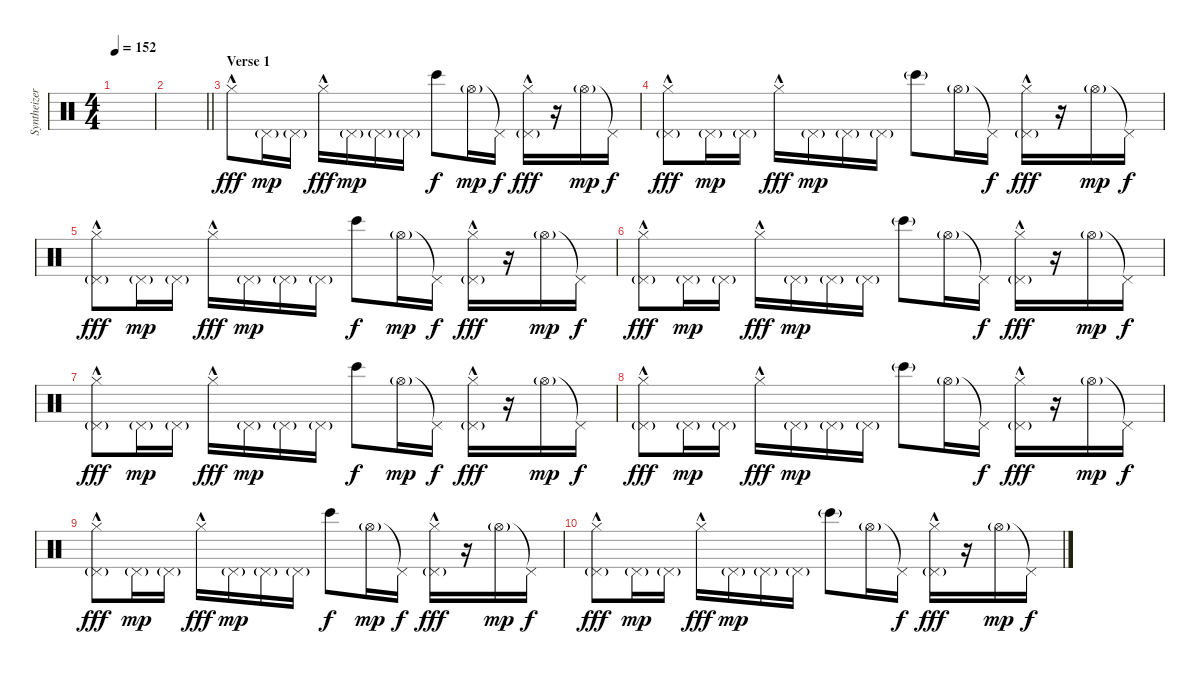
\track ("Syntheizer" "Syntheizer") {instrument percussion}
\staff {score}
\articulation defaults
\ts (4 4)
\tempo 152
\clef neutral
\ks c
|
\barLineRight lightlight
|
\section ("" "Verse 1")
"Hi-Hat (closed)"{hac}.8{dy fff} "Pedal Hi-Hat (hit)"{g}.16{dy mp} "Pedal Hi-Hat (hit)"{g}.16 "Hi-Hat (closed)"{hac}.16{dy fff} "Pedal Hi-Hat (hit)"{g}.16{dy mp} "Pedal Hi-Hat (hit)"{g}.16 "Pedal Hi-Hat (hit)"{g}.16 "Bongo High (hit)".8{dy f} "Hi-Hat (open)"{g}.16{dy mp} "Pedal Hi-Hat (hit)"{t}.16{dy f} ("Pedal Hi-Hat (hit)"{g} "Hi-Hat (closed)"{hac}).16{dy fff} r.16 "Hi-Hat (open)"{g}.16{dy mp} "Pedal Hi-Hat (hit)"{t}.16{dy f} |
("Pedal Hi-Hat (hit)"{g} "Hi-Hat (closed)"{hac}).8{dy fff} "Pedal Hi-Hat (hit)"{g}.16{dy mp} "Pedal Hi-Hat (hit)"{g}.16 "Hi-Hat (closed)"{hac}.16{dy fff} "Pedal Hi-Hat (hit)"{g}.16{dy mp} "Pedal Hi-Hat (hit)"{g}.16 "Pedal Hi-Hat (hit)"{g}.16 "Bongo High (hit)"{g}.8 "Hi-Hat (open)"{g}.16 "Pedal Hi-Hat (hit)"{t}.16{dy f} ("Pedal Hi-Hat (hit)"{g} "Hi-Hat (closed)"{hac}).16{dy fff} r.16 "Hi-Hat (open)"{g}.16{dy mp} "Pedal Hi-Hat (hit)"{t}.16{dy f} |
("Pedal Hi-Hat (hit)"{g} "Hi-Hat (closed)"{hac}).8{dy fff} "Pedal Hi-Hat (hit)"{g}.16{dy mp} "Pedal Hi-Hat (hit)"{g}.16 "Hi-Hat (closed)"{hac}.16{dy fff} "Pedal Hi-Hat (hit)"{g}.16{dy mp} "Pedal Hi-Hat (hit)"{g}.16 "Pedal Hi-Hat (hit)"{g}.16 "Bongo High (hit)".8{dy f} "Hi-Hat (open)"{g}.16{dy mp} "Pedal Hi-Hat (hit)"{t}.16{dy f} ("Pedal Hi-Hat (hit)"{g} "Hi-Hat (closed)"{hac}).16{dy fff} r.16 "Hi-Hat (open)"{g}.16{dy mp} "Pedal Hi-Hat (hit)"{t}.16{dy f} |
("Pedal Hi-Hat (hit)"{g} "Hi-Hat (closed)"{hac}).8{dy fff} "Pedal Hi-Hat (hit)"{g}.16{dy mp} "Pedal Hi-Hat (hit)"{g}.16 "Hi-Hat (closed)"{hac}.16{dy fff} "Pedal Hi-Hat (hit)"{g}.16{dy mp} "Pedal Hi-Hat (hit)"{g}.16 "Pedal Hi-Hat (hit)"{g}.16 "Bongo High (hit)"{g}.8 "Hi-Hat (open)"{g}.16 "Pedal Hi-Hat (hit)"{t}.16{dy f} ("Pedal Hi-Hat (hit)"{g} "Hi-Hat (closed)"{hac}).16{dy fff} r.16 "Hi-Hat (open)"{g}.16{dy mp} "Pedal Hi-Hat (hit)"{t}.16{dy f} |
("Pedal Hi-Hat (hit)"{g} "Hi-Hat (closed)"{hac}).8{dy fff} "Pedal Hi-Hat (hit)"{g}.16{dy mp} "Pedal Hi-Hat (hit)"{g}.16 "Hi-Hat (closed)"{hac}.16{dy fff} "Pedal Hi-Hat (hit)"{g}.16{dy mp} "Pedal Hi-Hat (hit)"{g}.16 "Pedal Hi-Hat (hit)"{g}.16 "Bongo High (hit)".8{dy f} "Hi-Hat (open)"{g}.16{dy mp} "Pedal Hi-Hat (hit)"{t}.16{dy f} ("Pedal Hi-Hat (hit)"{g} "Hi-Hat (closed)"{hac}).16{dy fff} r.16 "Hi-Hat (open)"{g}.16{dy mp} "Pedal Hi-Hat (hit)"{t}.16{dy f} |
("Pedal Hi-Hat (hit)"{g} "Hi-Hat (closed)"{hac}).8{dy fff} "Pedal Hi-Hat (hit)"{g}.16{dy mp} "Pedal Hi-Hat (hit)"{g}.16 "Hi-Hat (closed)"{hac}.16{dy fff} "Pedal Hi-Hat (hit)"{g}.16{dy mp} "Pedal Hi-Hat (hit)"{g}.16 "Pedal Hi-Hat (hit)"{g}.16 "Bongo High (hit)"{g}.8 "Hi-Hat (open)"{g}.16 "Pedal Hi-Hat (hit)"{t}.16{dy f} ("Pedal Hi-Hat (hit)"{g} "Hi-Hat (closed)"{hac}).16{dy fff} r.16 "Hi-Hat (open)"{g}.16{dy mp} "Pedal Hi-Hat (hit)"{t}.16{dy f} |
("Pedal Hi-Hat (hit)"{g} "Hi-Hat (closed)"{hac}).8{dy fff} "Pedal Hi-Hat (hit)"{g}.16{dy mp} "Pedal Hi-Hat (hit)"{g}.16 "Hi-Hat (closed)"{hac}.16{dy fff} "Pedal Hi-Hat (hit)"{g}.16{dy mp} "Pedal Hi-Hat (hit)"{g}.16 "Pedal Hi-Hat (hit)"{g}.16 "Bongo High (hit)".8{dy f} "Hi-Hat (open)"{g}.16{dy mp} "Pedal Hi-Hat (hit)"{t}.16{dy f} ("Pedal Hi-Hat (hit)"{g} "Hi-Hat (closed)"{hac}).16{dy fff} r.16 "Hi-Hat (open)"{g}.16{dy mp} "Pedal Hi-Hat (hit)"{t}.16{dy f} |
("Pedal Hi-Hat (hit)"{g} "Hi-Hat (closed)"{hac}).8{dy fff} "Pedal Hi-Hat (hit)"{g}.16{dy mp} "Pedal Hi-Hat (hit)"{g}.16 "Hi-Hat (closed)"{hac}.16{dy fff} "Pedal Hi-Hat (hit)"{g}.16{dy mp} "Pedal Hi-Hat (hit)"{g}.16 "Pedal Hi-Hat (hit)"{g}.16 "Bongo High (hit)"{g}.8 "Hi-Hat (open)"{g}.16 "Pedal Hi-Hat (hit)"{t}.16{dy f} ("Pedal Hi-Hat (hit)"{g} "Hi-Hat (closed)"{hac}).16{dy fff} r.16 "Hi-Hat (open)"{g}.16{dy mp} "Pedal Hi-Hat (hit)"{t}.16{dy f}
